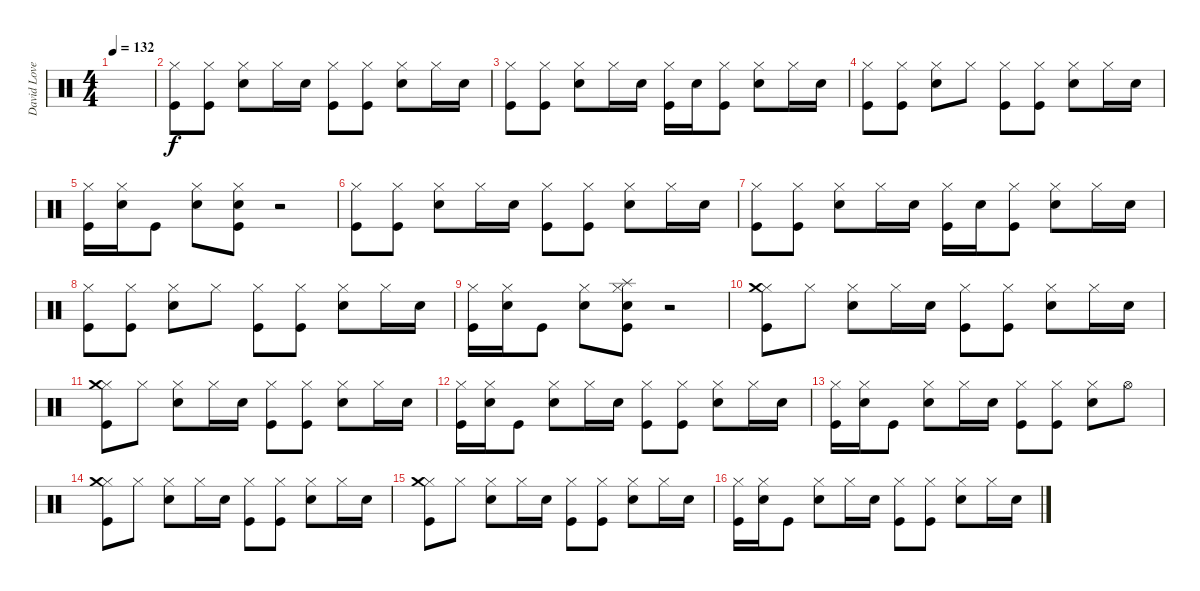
\track ("David Lovering" "David Love") {instrument percussion}
\staff {score}
\articulation defaults
\ts (4 4)
\tempo 132
\clef neutral
\ks c
|
("Hi-Hat (closed)" "Kick (hit)").8 ("Hi-Hat (closed)" "Kick (hit)").8 ("Hi-Hat (closed)" "Snare (hit) 2").8 "Hi-Hat (closed)".16 "Snare (hit) 2".16 ("Hi-Hat (closed)" "Kick (hit)").8 ("Hi-Hat (closed)" "Kick (hit)").8 ("Hi-Hat (closed)" "Snare (hit) 2").8 "Hi-Hat (closed)".16 "Snare (hit) 2".16 |
("Hi-Hat (closed)" "Kick (hit)").8 ("Hi-Hat (closed)" "Kick (hit)").8 ("Hi-Hat (closed)" "Snare (hit) 2").8 "Hi-Hat (closed)".16 "Snare (hit) 2".16 ("Hi-Hat (closed)" "Kick (hit)").16 "Snare (hit) 2".16 ("Hi-Hat (closed)" "Kick (hit)").8 ("Hi-Hat (closed)" "Snare (hit) 2").8 "Hi-Hat (closed)".16 "Snare (hit) 2".16 |
("Hi-Hat (closed)" "Kick (hit)").8 ("Hi-Hat (closed)" "Kick (hit)").8 ("Hi-Hat (closed)" "Snare (hit) 2").8 "Hi-Hat (closed)".8 ("Hi-Hat (closed)" "Kick (hit)").8 ("Hi-Hat (closed)" "Kick (hit)").8 ("Hi-Hat (closed)" "Snare (hit) 2").8 "Hi-Hat (closed)".16 "Snare (hit) 2".16 |
("Hi-Hat (closed)" "Kick (hit)").16 ("Hi-Hat (closed)" "Snare (hit) 2").16 "Kick (hit)".8 ("Hi-Hat (closed)" "Snare (hit) 2").8 ("Hi-Hat (closed)" "Snare (hit) 2" "Kick (hit)").8 r.2 |
("Hi-Hat (closed)" "Kick (hit)").8 ("Hi-Hat (closed)" "Kick (hit)").8 ("Hi-Hat (closed)" "Snare (hit) 2").8 "Hi-Hat (closed)".16 "Snare (hit) 2".16 ("Hi-Hat (closed)" "Kick (hit)").8 ("Hi-Hat (closed)" "Kick (hit)").8 ("Hi-Hat (closed)" "Snare (hit) 2").8 "Hi-Hat (closed)".16 "Snare (hit) 2".16 |
("Hi-Hat (closed)" "Kick (hit)").8 ("Hi-Hat (closed)" "Kick (hit)").8 ("Hi-Hat (closed)" "Snare (hit) 2").8 "Hi-Hat (closed)".16 "Snare (hit) 2".16 ("Hi-Hat (closed)" "Kick (hit)").16 "Snare (hit) 2".16 ("Hi-Hat (closed)" "Kick (hit)").8 ("Hi-Hat (closed)" "Snare (hit) 2").8 "Hi-Hat (closed)".16 "Snare (hit) 2".16 |
("Hi-Hat (closed)" "Kick (hit)").8 ("Hi-Hat (closed)" "Kick (hit)").8 ("Hi-Hat (closed)" "Snare (hit) 2").8 "Hi-Hat (closed)".8 ("Hi-Hat (closed)" "Kick (hit)").8 ("Hi-Hat (closed)" "Kick (hit)").8 ("Hi-Hat (closed)" "Snare (hit) 2").8 "Hi-Hat (closed)".16 "Snare (hit) 2".16 |
("Hi-Hat (closed)" "Kick (hit)").16 ("Hi-Hat (closed)" "Snare (hit) 2").16 "Kick (hit)".8 ("Hi-Hat (closed)" "Snare (hit) 2").8 ("Hi-Hat (closed)" "Splash (hit)" "Snare (hit) 2" "Kick (hit)").8 r.2 |
\section ("" "")
("Hi-Hat (closed)" "Crash medium (hit)" "Kick (hit)").8 "Hi-Hat (closed)".8 ("Hi-Hat (closed)" "Snare (hit) 2").8 "Hi-Hat (closed)".16 "Snare (hit) 2".16 ("Hi-Hat (closed)" "Kick (hit)").8 ("Hi-Hat (closed)" "Kick (hit)").8 ("Hi-Hat (closed)" "Snare (hit) 2").8 "Hi-Hat (closed)".16 "Snare (hit) 2".16 |
("Hi-Hat (closed)" "Crash medium (hit)" "Kick (hit)").8 "Hi-Hat (closed)".8 ("Hi-Hat (closed)" "Snare (hit) 2").8 "Hi-Hat (closed)".16 "Snare (hit) 2".16 ("Hi-Hat (closed)" "Kick (hit)").8 ("Hi-Hat (closed)" "Kick (hit)").8 ("Hi-Hat (closed)" "Snare (hit) 2").8 "Hi-Hat (closed)".16 "Snare (hit) 2".16 |
("Hi-Hat (closed)" "Kick (hit)").16 ("Hi-Hat (closed)" "Snare (hit) 2").16 "Kick (hit)".8 ("Hi-Hat (closed)" "Snare (hit) 2").8 "Hi-Hat (closed)".16 "Snare (hit) 2".16 ("Hi-Hat (closed)" "Kick (hit)").8 ("Hi-Hat (closed)" "Kick (hit)").8 ("Hi-Hat (closed)" "Snare (hit) 2").8 "Hi-Hat (closed)".16 "Snare (hit) 2".16 |
("Hi-Hat (closed)" "Kick (hit)").16 ("Hi-Hat (closed)" "Snare (hit) 2").16 "Kick (hit)".8 ("Hi-Hat (closed)" "Snare (hit) 2").8 "Hi-Hat (closed)".16 "Snare (hit) 2".16 ("Hi-Hat (closed)" "Kick (hit)").8 ("Hi-Hat (closed)" "Kick (hit)").8 ("Hi-Hat (closed)" "Snare (hit) 2").8 "Hi-Hat (open)".8 |
("Hi-Hat (closed)" "Crash medium (hit)" "Kick (hit)").8 "Hi-Hat (closed)".8 ("Hi-Hat (closed)" "Snare (hit) 2").8 "Hi-Hat (closed)".16 "Snare (hit) 2".16 ("Hi-Hat (closed)" "Kick (hit)").8 ("Hi-Hat (closed)" "Kick (hit)").8 ("Hi-Hat (closed)" "Snare (hit) 2").8 "Hi-Hat (closed)".16 "Snare (hit) 2".16 |
("Hi-Hat (closed)" "Crash medium (hit)" "Kick (hit)").8 "Hi-Hat (closed)".8 ("Hi-Hat (closed)" "Snare (hit) 2").8 "Hi-Hat (closed)".16 "Snare (hit) 2".16 ("Hi-Hat (closed)" "Kick (hit)").8 ("Hi-Hat (closed)" "Kick (hit)").8 ("Hi-Hat (closed)" "Snare (hit) 2").8 "Hi-Hat (closed)".16 "Snare (hit) 2".16 |
("Hi-Hat (closed)" "Kick (hit)").16 ("Hi-Hat (closed)" "Snare (hit) 2").16 "Kick (hit)".8 ("Hi-Hat (closed)" "Snare (hit) 2").8 "Hi-Hat (closed)".16 "Snare (hit) 2".16 ("Hi-Hat (closed)" "Kick (hit)").8 ("Hi-Hat (closed)" "Kick (hit)").8 ("Hi-Hat (closed)" "Snare (hit) 2").8 "Hi-Hat (closed)".16 "Snare (hit) 2".16
